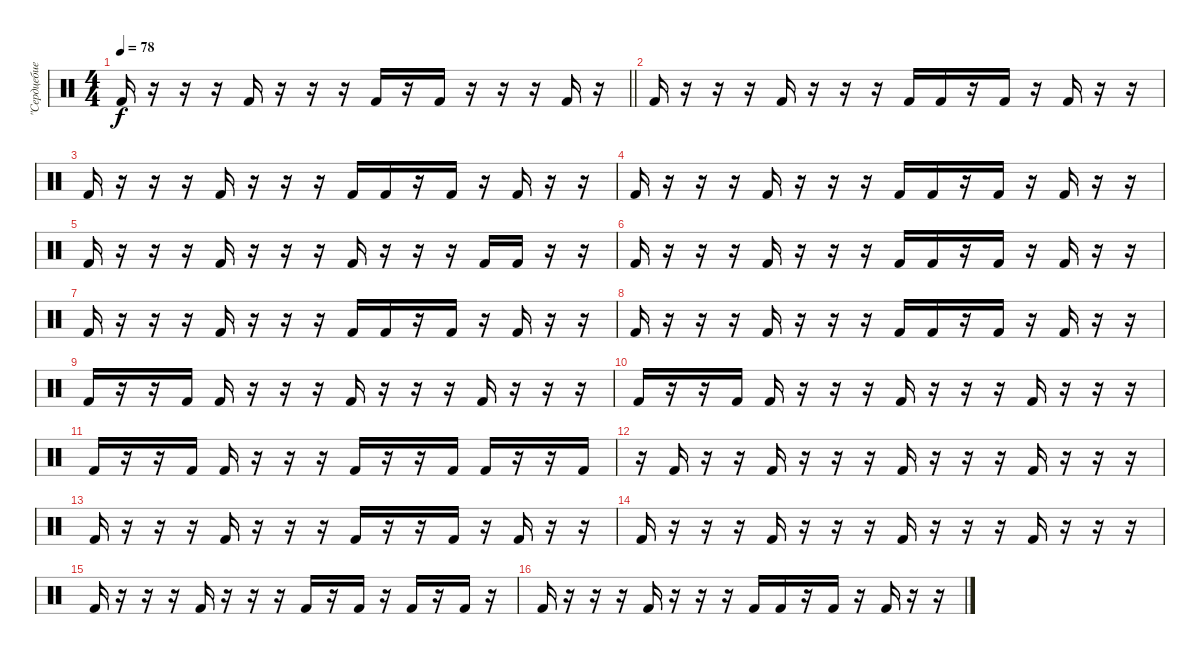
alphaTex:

\track ("\"Сердцебиение\" песни" "\"Сердцебие") {instrument percussion}
\staff {score}
\articulation defaults
\ts (4 4)
\tempo 78
\clef neutral
\barLineRight lightlight
\ks c "Kick (hit) 2".16{dy f}
r.16 r.16 r.16 "Kick (hit) 2".16 r.16 r.16 r.16 "Kick (hit) 2".16 r.16 "Kick (hit) 2".16 r.16 r.16 r.16 "Kick (hit) 2".16 r.16 |
"Kick (hit) 2".16 r.16 r.16 r.16 "Kick (hit) 2".16 r.16 r.16 r.16 "Kick (hit) 2".16 "Kick (hit) 2".16 r.16 "Kick (hit) 2".16 r.16 "Kick (hit) 2".16 r.16 r.16 |
"Kick (hit) 2".16 r.16 r.16 r.16 "Kick (hit) 2".16 r.16 r.16 r.16 "Kick (hit) 2".16 "Kick (hit) 2".16 r.16 "Kick (hit) 2".16 r.16 "Kick (hit) 2".16 r.16 r.16 |
"Kick (hit) 2".16 r.16 r.16 r.16 "Kick (hit) 2".16 r.16 r.16 r.16 "Kick (hit) 2".16 "Kick (hit) 2".16 r.16 "Kick (hit) 2".16 r.16 "Kick (hit) 2".16 r.16 r.16 |
"Kick (hit) 2".16 r.16 r.16 r.16 "Kick (hit) 2".16 r.16 r.16 r.16 "Kick (hit) 2".16 r.16 r.16 r.16 "Kick (hit) 2".16 "Kick (hit) 2".16 r.16 r.16 |
"Kick (hit) 2".16 r.16 r.16 r.16 "Kick (hit) 2".16 r.16 r.16 r.16 "Kick (hit) 2".16 "Kick (hit) 2".16 r.16 "Kick (hit) 2".16 r.16 "Kick (hit) 2".16 r.16 r.16 |
"Kick (hit) 2".16 r.16 r.16 r.16 "Kick (hit) 2".16 r.16 r.16 r.16 "Kick (hit) 2".16 "Kick (hit) 2".16 r.16 "Kick (hit) 2".16 r.16 "Kick (hit) 2".16 r.16 r.16 |
"Kick (hit) 2".16 r.16 r.16 r.16 "Kick (hit) 2".16 r.16 r.16 r.16 "Kick (hit) 2".16 "Kick (hit) 2".16 r.16 "Kick (hit) 2".16 r.16 "Kick (hit) 2".16 r.16 r.16 |
"Kick (hit) 2".16 r.16 r.16 "Kick (hit) 2".16 "Kick (hit) 2".16 r.16 r.16 r.16 "Kick (hit) 2".16 r.16 r.16 r.16 "Kick (hit) 2".16 r.16 r.16 r.16 |
"Kick (hit) 2".16 r.16 r.16 "Kick (hit) 2".16 "Kick (hit) 2".16 r.16 r.16 r.16 "Kick (hit) 2".16 r.16 r.16 r.16 "Kick (hit) 2".16 r.16 r.16 r.16 |
"Kick (hit) 2".16 r.16 r.16 "Kick (hit) 2".16 "Kick (hit) 2".16 r.16 r.16 r.16 "Kick (hit) 2".16 r.16 r.16 "Kick (hit) 2".16 "Kick (hit) 2".16 r.16 r.16 "Kick (hit) 2".16 |
r.16 "Kick (hit) 2".16 r.16 r.16 "Kick (hit) 2".16 r.16 r.16 r.16 "Kick (hit) 2".16 r.16 r.16 r.16 "Kick (hit) 2".16 r.16 r.16 r.16 |
"Kick (hit) 2".16 r.16 r.16 r.16 "Kick (hit) 2".16 r.16 r.16 r.16 "Kick (hit) 2".16 r.16 r.16 "Kick (hit) 2".16 r.16 "Kick (hit) 2".16 r.16 r.16 |
"Kick (hit) 2".16 r.16 r.16 r.16 "Kick (hit) 2".16 r.16 r.16 r.16 "Kick (hit) 2".16 r.16 r.16 r.16 "Kick (hit) 2".16 r.16 r.16 r.16 |
"Kick (hit) 2".16 r.16 r.16 r.16 "Kick (hit) 2".16 r.16 r.16 r.16 "Kick (hit) 2".16 r.16 "Kick (hit) 2".16 r.16 "Kick (hit) 2".16 r.16 "Kick (hit) 2".16 r.16 |
"Kick (hit) 2".16 r.16 r.16 r.16 "Kick (hit) 2".16 r.16 r.16 r.16 "Kick (hit) 2".16 "Kick (hit) 2".16 r.16 "Kick (hit) 2".16 r.16 "Kick (hit) 2".16 r.16 r.16
